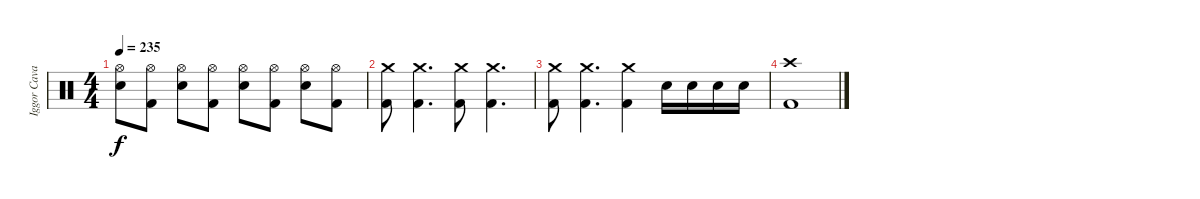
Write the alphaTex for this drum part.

\track ("Iggor Cavalera" "Iggor Cava") {instrument percussion}
\staff {score}
\articulation defaults
\ts (4 4)
\tempo 235
\clef neutral
\ks c
("Hi-Hat (open)" "Snare (hit) 2").8{dy f} ("Hi-Hat (open)" "Kick (hit) 2").8 ("Hi-Hat (open)" "Snare (hit) 2").8 ("Hi-Hat (open)" "Kick (hit) 2").8 ("Hi-Hat (open)" "Snare (hit) 2").8 ("Hi-Hat (open)" "Kick (hit) 2").8 ("Hi-Hat (open)" "Snare (hit) 2").8 ("Hi-Hat (open)" "Kick (hit) 2").8 |
("Crash medium (hit)" "Kick (hit) 2").8 ("Crash medium (hit)" "Kick (hit) 2").4{d} ("Crash medium (hit)" "Kick (hit) 2").8 ("Crash medium (hit)" "Kick (hit) 2").4{d} |
("Crash medium (hit)" "Kick (hit) 2").8 ("Crash medium (hit)" "Kick (hit) 2").4{d} ("Crash medium (hit)" "Kick (hit) 2").4 "Snare (hit) 2".16 "Snare (hit) 2".16 "Snare (hit) 2".16 "Snare (hit) 2".16 |
("Crash high (hit)" "Kick (hit) 2").1
